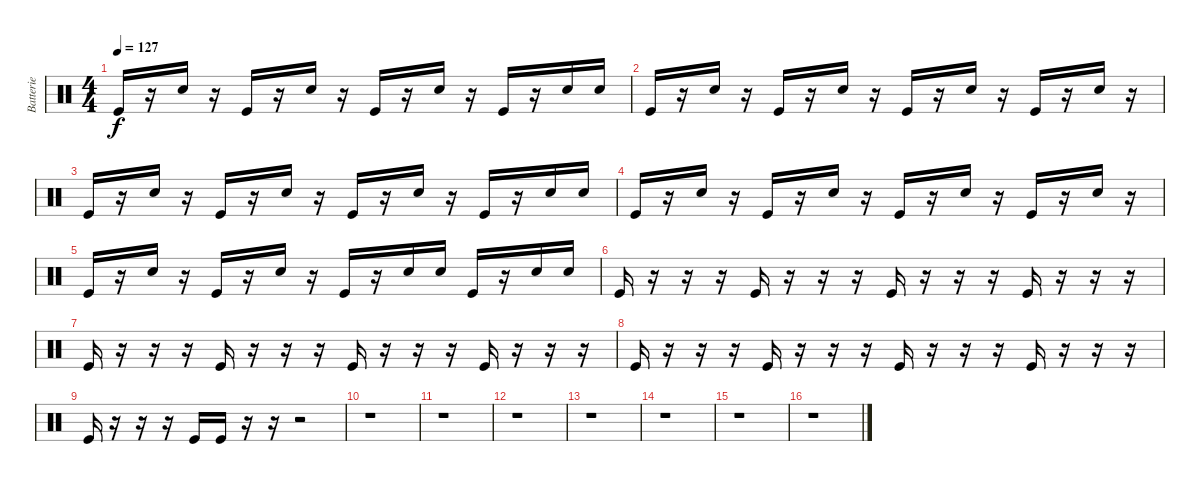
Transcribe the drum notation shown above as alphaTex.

\track ("Batterie" "Batterie") {instrument percussion}
\staff {score}
\articulation defaults
\ts (4 4)
\tempo 127
\clef neutral
\ks c "Kick (hit)".16{dy f}
r.16 "Snare (hit) 2".16 r.16 "Kick (hit)".16 r.16 "Snare (hit) 2".16 r.16 "Kick (hit)".16 r.16 "Snare (hit) 2".16 r.16 "Kick (hit)".16 r.16 "Snare (hit) 2".16 "Snare (hit) 2".16 |
"Kick (hit)".16 r.16 "Snare (hit) 2".16 r.16 "Kick (hit)".16 r.16 "Snare (hit) 2".16 r.16 "Kick (hit)".16 r.16 "Snare (hit) 2".16 r.16 "Kick (hit)".16 r.16 "Snare (hit) 2".16 r.16 |
"Kick (hit)".16 r.16 "Snare (hit) 2".16 r.16 "Kick (hit)".16 r.16 "Snare (hit) 2".16 r.16 "Kick (hit)".16 r.16 "Snare (hit) 2".16 r.16 "Kick (hit)".16 r.16 "Snare (hit) 2".16 "Snare (hit) 2".16 |
"Kick (hit)".16 r.16 "Snare (hit) 2".16 r.16 "Kick (hit)".16 r.16 "Snare (hit) 2".16 r.16 "Kick (hit)".16 r.16 "Snare (hit) 2".16 r.16 "Kick (hit)".16 r.16 "Snare (hit) 2".16 r.16 |
"Kick (hit)".16 r.16 "Snare (hit) 2".16 r.16 "Kick (hit)".16 r.16 "Snare (hit) 2".16 r.16 "Kick (hit)".16 r.16 "Snare (hit) 2".16 "Snare (hit) 2".16 "Kick (hit)".16 r.16 "Snare (hit) 2".16 "Snare (hit) 2".16 |
"Kick (hit)".16 r.16 r.16 r.16 "Kick (hit)".16 r.16 r.16 r.16 "Kick (hit)".16 r.16 r.16 r.16 "Kick (hit)".16 r.16 r.16 r.16 |
"Kick (hit)".16 r.16 r.16 r.16 "Kick (hit)".16 r.16 r.16 r.16 "Kick (hit)".16 r.16 r.16 r.16 "Kick (hit)".16 r.16 r.16 r.16 |
"Kick (hit)".16 r.16 r.16 r.16 "Kick (hit)".16 r.16 r.16 r.16 "Kick (hit)".16 r.16 r.16 r.16 "Kick (hit)".16 r.16 r.16 r.16 |
"Kick (hit)".16 r.16 r.16 r.16 "Kick (hit)".16 "Kick (hit)".16 r.16 r.16 r.2 |
r.1 |
r.1 |
r.1 |
r.1 |
r.1 |
r.1 |
r.1
